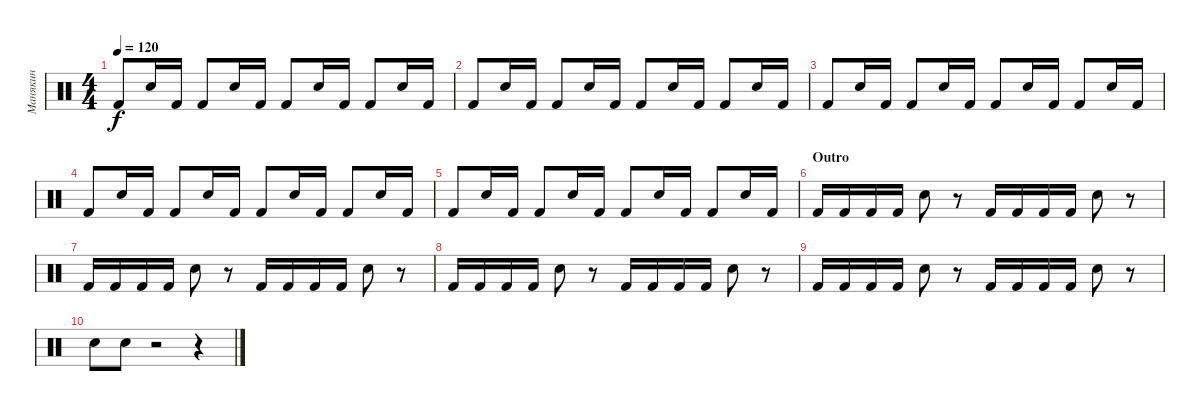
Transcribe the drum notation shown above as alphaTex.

\track ("Манякин" "Манякин") {instrument percussion}
\staff {score}
\articulation defaults
\ts (4 4)
\tempo 120
\clef neutral
\ks c "Kick (hit) 2".8{dy f} "Snare (hit) 2".16 "Kick (hit) 2".16 "Kick (hit) 2".8 "Snare (hit) 2".16 "Kick (hit) 2".16 "Kick (hit) 2".8 "Snare (hit) 2".16 "Kick (hit) 2".16 "Kick (hit) 2".8 "Snare (hit) 2".16 "Kick (hit) 2".16
|
"Kick (hit) 2".8 "Snare (hit) 2".16 "Kick (hit) 2".16 "Kick (hit) 2".8 "Snare (hit) 2".16 "Kick (hit) 2".16 "Kick (hit) 2".8 "Snare (hit) 2".16 "Kick (hit) 2".16 "Kick (hit) 2".8 "Snare (hit) 2".16 "Kick (hit) 2".16 |
"Kick (hit) 2".8 "Snare (hit) 2".16 "Kick (hit) 2".16 "Kick (hit) 2".8 "Snare (hit) 2".16 "Kick (hit) 2".16 "Kick (hit) 2".8 "Snare (hit) 2".16 "Kick (hit) 2".16 "Kick (hit) 2".8 "Snare (hit) 2".16 "Kick (hit) 2".16 |
"Kick (hit) 2".8 "Snare (hit) 2".16 "Kick (hit) 2".16 "Kick (hit) 2".8 "Snare (hit) 2".16 "Kick (hit) 2".16 "Kick (hit) 2".8 "Snare (hit) 2".16 "Kick (hit) 2".16 "Kick (hit) 2".8 "Snare (hit) 2".16 "Kick (hit) 2".16 |
"Kick (hit) 2".8 "Snare (hit) 2".16 "Kick (hit) 2".16 "Kick (hit) 2".8 "Snare (hit) 2".16 "Kick (hit) 2".16 "Kick (hit) 2".8 "Snare (hit) 2".16 "Kick (hit) 2".16 "Kick (hit) 2".8 "Snare (hit) 2".16 "Kick (hit) 2".16 |
\section ("" "Outro")
"Kick (hit) 2".16 "Kick (hit) 2".16 "Kick (hit) 2".16 "Kick (hit) 2".16 "Snare (hit) 2".8 r.8 "Kick (hit) 2".16 "Kick (hit) 2".16 "Kick (hit) 2".16 "Kick (hit) 2".16 "Snare (hit) 2".8 r.8 |
"Kick (hit) 2".16 "Kick (hit) 2".16 "Kick (hit) 2".16 "Kick (hit) 2".16 "Snare (hit) 2".8 r.8 "Kick (hit) 2".16 "Kick (hit) 2".16 "Kick (hit) 2".16 "Kick (hit) 2".16 "Snare (hit) 2".8 r.8 |
"Kick (hit) 2".16 "Kick (hit) 2".16 "Kick (hit) 2".16 "Kick (hit) 2".16 "Snare (hit) 2".8 r.8 "Kick (hit) 2".16 "Kick (hit) 2".16 "Kick (hit) 2".16 "Kick (hit) 2".16 "Snare (hit) 2".8 r.8 |
"Kick (hit) 2".16 "Kick (hit) 2".16 "Kick (hit) 2".16 "Kick (hit) 2".16 "Snare (hit) 2".8 r.8 "Kick (hit) 2".16 "Kick (hit) 2".16 "Kick (hit) 2".16 "Kick (hit) 2".16 "Snare (hit) 2".8 r.8 |
"Snare (hit) 2".8 "Snare (hit) 2".8 r.2 r.4
